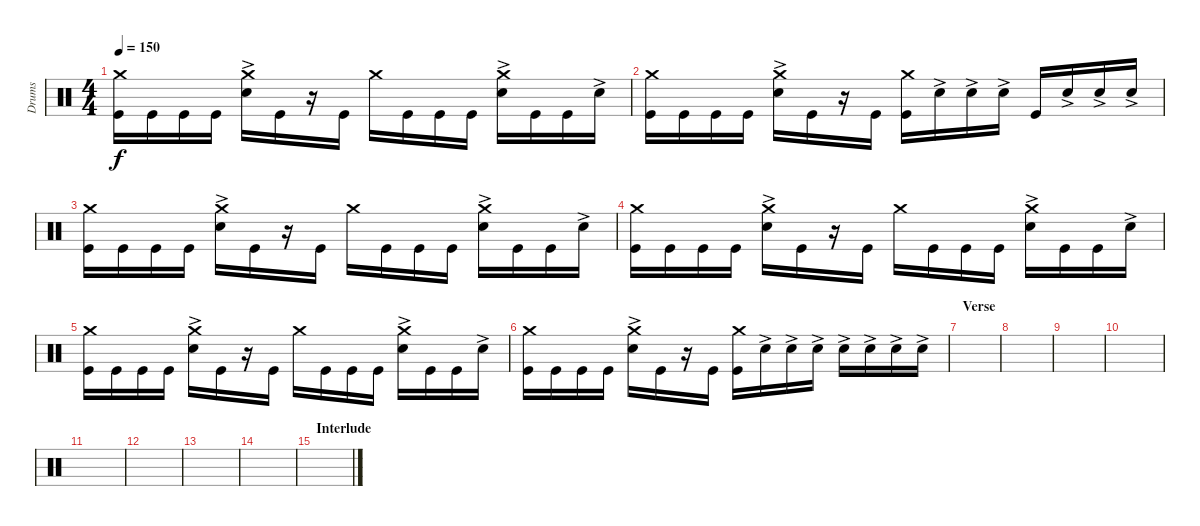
\track ("Drums" "Drums") {instrument percussion}
\staff {score}
\articulation defaults
\ts (4 4)
\tempo 150
\clef neutral
\ks c
("Crash medium (hit)" "Kick (hit)").16{dy f} "Kick (hit)".16 "Kick (hit)".16 "Kick (hit)".16 ("Crash medium (hit)" "Snare (hit) 2"{ac}).16 "Kick (hit)".16 r.16 "Kick (hit)".16 "Crash medium (hit)".16 "Kick (hit)".16 "Kick (hit)".16 "Kick (hit)".16 ("Crash medium (hit)" "Snare (hit) 2"{ac}).16 "Kick (hit)".16 "Kick (hit)".16 "Snare (hit) 2"{ac}.16 |
("Crash medium (hit)" "Kick (hit)").16 "Kick (hit)".16 "Kick (hit)".16 "Kick (hit)".16 ("Crash medium (hit)" "Snare (hit) 2"{ac}).16 "Kick (hit)".16 r.16 "Kick (hit)".16 ("Kick (hit)" "Crash medium (hit)").16 "Snare (hit) 2"{ac}.16 "Snare (hit) 2"{ac}.16 "Snare (hit) 2"{ac}.16 "Kick (hit)".16 "Snare (hit) 2"{ac}.16 "Snare (hit) 2"{ac}.16 "Snare (hit) 2"{ac}.16 |
("Crash medium (hit)" "Kick (hit)").16 "Kick (hit)".16 "Kick (hit)".16 "Kick (hit)".16 ("Crash medium (hit)" "Snare (hit) 2"{ac}).16 "Kick (hit)".16 r.16 "Kick (hit)".16 "Crash medium (hit)".16 "Kick (hit)".16 "Kick (hit)".16 "Kick (hit)".16 ("Crash medium (hit)" "Snare (hit) 2"{ac}).16 "Kick (hit)".16 "Kick (hit)".16 "Snare (hit) 2"{ac}.16 |
("Crash medium (hit)" "Kick (hit)").16 "Kick (hit)".16 "Kick (hit)".16 "Kick (hit)".16 ("Crash medium (hit)" "Snare (hit) 2"{ac}).16 "Kick (hit)".16 r.16 "Kick (hit)".16 "Crash medium (hit)".16 "Kick (hit)".16 "Kick (hit)".16 "Kick (hit)".16 ("Crash medium (hit)" "Snare (hit) 2"{ac}).16 "Kick (hit)".16 "Kick (hit)".16 "Snare (hit) 2"{ac}.16 |
("Crash medium (hit)" "Kick (hit)").16 "Kick (hit)".16 "Kick (hit)".16 "Kick (hit)".16 ("Crash medium (hit)" "Snare (hit) 2"{ac}).16 "Kick (hit)".16 r.16 "Kick (hit)".16 "Crash medium (hit)".16 "Kick (hit)".16 "Kick (hit)".16 "Kick (hit)".16 ("Crash medium (hit)" "Snare (hit) 2"{ac}).16 "Kick (hit)".16 "Kick (hit)".16 "Snare (hit) 2"{ac}.16 |
("Crash medium (hit)" "Kick (hit)").16 "Kick (hit)".16 "Kick (hit)".16 "Kick (hit)".16 ("Crash medium (hit)" "Snare (hit) 2"{ac}).16 "Kick (hit)".16 r.16 "Kick (hit)".16 ("Kick (hit)" "Crash medium (hit)").16 "Snare (hit) 2"{ac}.16 "Snare (hit) 2"{ac}.16 "Snare (hit) 2"{ac}.16 "Snare (hit) 2"{ac}.16 "Snare (hit) 2"{ac}.16 "Snare (hit) 2"{ac}.16 "Snare (hit) 2"{ac}.16 |
\section ("" "Verse")
|
|
|
|
|
|
|
|
\section ("" "Interlude")
